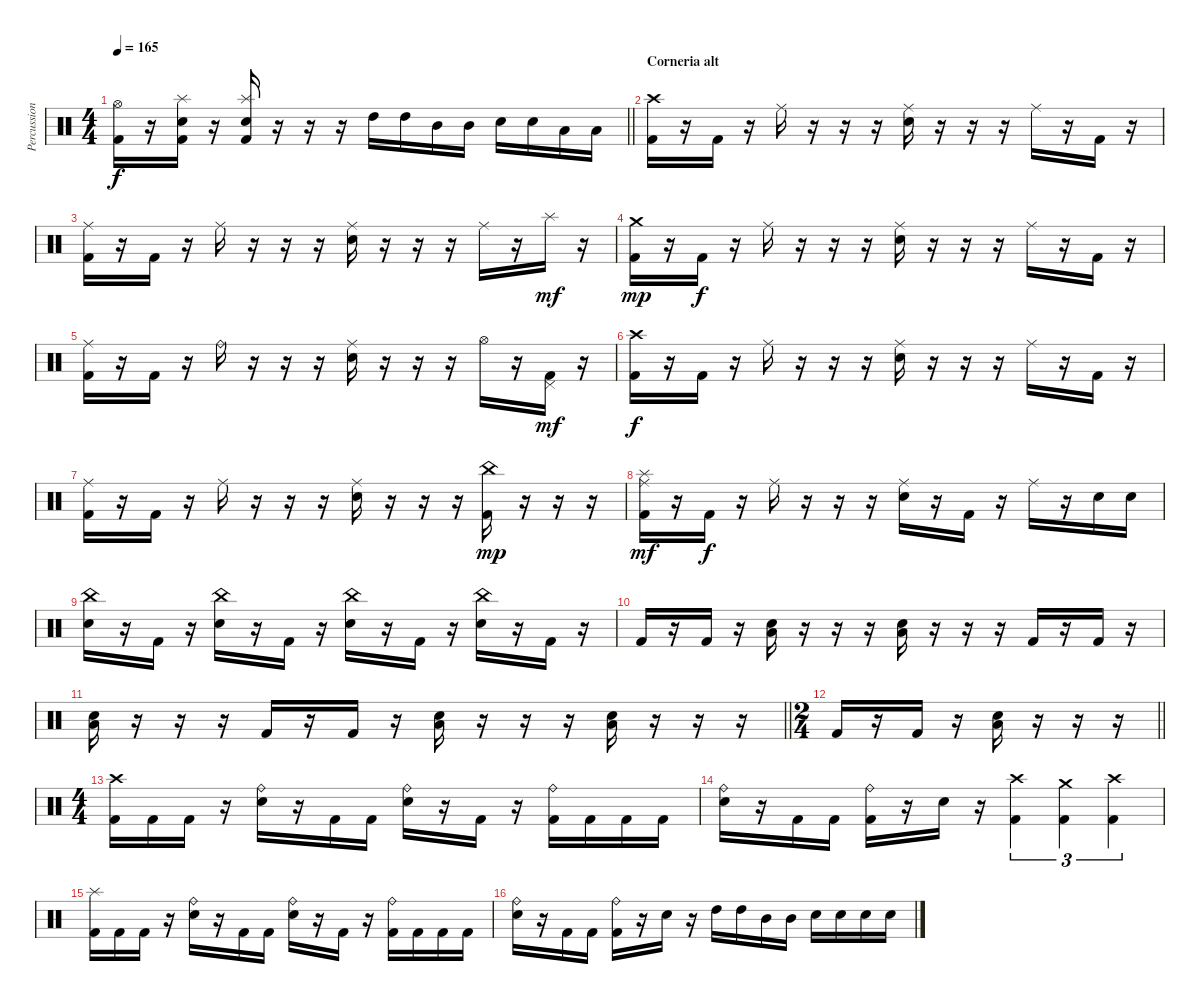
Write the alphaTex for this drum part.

\track ("Percussion" "Percussion") {instrument percussion}
\staff {score}
\articulation defaults
\ts (4 4)
\tempo 165
\clef neutral
\barLineRight lightlight
\ks c
("Hi-Hat (open)" "Kick (hit) 2").16{dy f} r.16 ("Splash (hit)" "Snare (hit) 2" "Kick (hit) 2").16 r.16 ("Splash (hit)" "Snare (hit) 2" "Kick (hit) 2").16 r.16 r.16 r.16 "High Tom (hit)".16 "High Tom (hit)".16 "Mid Tom (hit)".16 "Mid Tom (hit)".16 "Snare (hit) 2".16 "Snare (hit) 2".16 "Low Tom (hit)".16 "Low Tom (hit)".16 |
\section ("" "Corneria alt")
("Crash high (hit)" "Kick (hit) 2").16 r.16 "Kick (hit) 2".16 r.16 "Ride (middle)".16 r.16 r.16 r.16 ("Ride (middle)" "Snare (hit) 2").16 r.16 r.16 r.16 "Ride (middle)".16 r.16 "Kick (hit) 2".16 r.16 |
("Ride (middle)" "Kick (hit) 2").16 r.16 "Kick (hit) 2".16 r.16 "Ride (middle)".16 r.16 r.16 r.16 ("Ride (middle)" "Snare (hit) 2").16 r.16 r.16 r.16 "Ride (middle)".16 r.16 "Splash (hit)".16{dy mf} r.16 |
("Crash medium (hit)" "Kick (hit) 2").16{dy mp} r.16 "Kick (hit) 2".16{dy f} r.16 "Ride (middle)".16 r.16 r.16 r.16 ("Ride (middle)" "Snare (hit) 2").16 r.16 r.16 r.16 "Ride (middle)".16 r.16 "Kick (hit) 2".16 r.16 |
("Ride (middle)" "Kick (hit) 2").16 r.16 "Kick (hit) 2".16 r.16 "Ride (bell)".16 r.16 r.16 r.16 ("Ride (middle)" "Snare (hit) 2").16 r.16 r.16 r.16 "Hi-Hat (open)".16 r.16 ("Pedal Hi-Hat (hit)" "Kick (hit) 2").16{dy mf} r.16 |
("Crash high (hit)" "Kick (hit) 2").16{dy f} r.16 "Kick (hit) 2".16 r.16 "Ride (middle)".16 r.16 r.16 r.16 ("Ride (middle)" "Snare (hit) 2").16 r.16 r.16 r.16 "Ride (middle)".16 r.16 "Kick (hit) 2".16 r.16 |
("Ride (middle)" "Kick (hit) 2").16 r.16 "Kick (hit) 2".16 r.16 "Ride (middle)".16 r.16 r.16 r.16 ("Ride (middle)" "Snare (hit) 2").16 r.16 r.16 r.16 ("China (hit)" "Kick (hit) 2").16{dy mp} r.16 r.16 r.16 |
("Splash (hit)" "Ride (middle)" "Kick (hit) 2").16{dy mf} r.16 "Kick (hit) 2".16{dy f} r.16 "Ride (middle)".16 r.16 r.16 r.16 ("Ride (middle)" "Snare (hit) 2").16 r.16 "Kick (hit) 2".16 r.16 "Ride (middle)".16 r.16 "Snare (hit) 2".16 "Snare (hit) 2".16 |
("China (hit)" "Snare (hit) 2").16 r.16 "Kick (hit) 2".16 r.16 ("China (hit)" "Snare (hit) 2").16 r.16 "Kick (hit) 2".16 r.16 ("China (hit)" "Snare (hit) 2").16 r.16 "Kick (hit) 2".16 r.16 ("China (hit)" "Snare (hit) 2").16 r.16 "Kick (hit) 2".16 r.16 |
"Kick (hit) 2".16 r.16 "Kick (hit) 2".16 r.16 ("Snare (hit) 2" "Low Tom (hit)").16 r.16 r.16 r.16 ("Snare (hit) 2" "Low Tom (hit)").16 r.16 r.16 r.16 "Kick (hit) 2".16 r.16 "Kick (hit) 2".16 r.16 |
\barLineRight lightlight
("Snare (hit) 2" "Low Tom (hit)").16 r.16 r.16 r.16 "Kick (hit) 2".16 r.16 "Kick (hit) 2".16 r.16 ("Snare (hit) 2" "Low Tom (hit)").16 r.16 r.16 r.16 ("Snare (hit) 2" "Low Tom (hit)").16 r.16 r.16 r.16 |
\ts (2 4)
\barLineRight lightlight "Kick (hit) 2".16
r.16 "Kick (hit) 2".16 r.16 ("Low Tom (hit)" "Snare (hit) 2").16 r.16 r.16 r.16 |
\ts (4 4)
\section ("" "")
("Crash high (hit)" "Kick (hit) 2").16 "Kick (hit) 2".16 "Kick (hit) 2".16 r.16 ("Ride (bell)" "Snare (hit) 2").16 r.16 "Kick (hit) 2".16 "Kick (hit) 2".16 ("Ride (bell)" "Snare (hit) 2").16 r.16 "Kick (hit) 2".16 r.16 ("Ride (bell)" "Kick (hit) 2").16 "Kick (hit) 2".16 "Kick (hit) 2".16 "Kick (hit) 2".16 |
("Ride (bell)" "Snare (hit) 2").16 r.16 "Kick (hit) 2".16 "Kick (hit) 2".16 ("Ride (bell)" "Kick (hit) 2").16 r.16 "Snare (hit) 2".16 r.16 ("Crash high (hit)" "Kick (hit) 2").4{tu (3 2)} ("Crash medium (hit)" "Kick (hit) 2").4{tu (3 2)} ("Crash high (hit)" "Kick (hit) 2").4{tu (3 2)} |
("Splash (hit)" "Kick (hit) 2").16 "Kick (hit) 2".16 "Kick (hit) 2".16 r.16 ("Ride (bell)" "Snare (hit) 2").16 r.16 "Kick (hit) 2".16 "Kick (hit) 2".16 ("Ride (bell)" "Snare (hit) 2").16 r.16 "Kick (hit) 2".16 r.16 ("Ride (bell)" "Kick (hit) 2").16 "Kick (hit) 2".16 "Kick (hit) 2".16 "Kick (hit) 2".16 |
("Ride (bell)" "Snare (hit) 2").16 r.16 "Kick (hit) 2".16 "Kick (hit) 2".16 ("Ride (bell)" "Kick (hit) 2").16 r.16 "Snare (hit) 2".16 r.16 "High Tom (hit)".16 "High Tom (hit)".16 "Mid Tom (hit)".16 "Mid Tom (hit)".16 "Snare (hit) 2".16 "Snare (hit) 2".16 "Snare (hit) 2".16 "Snare (hit) 2".16
